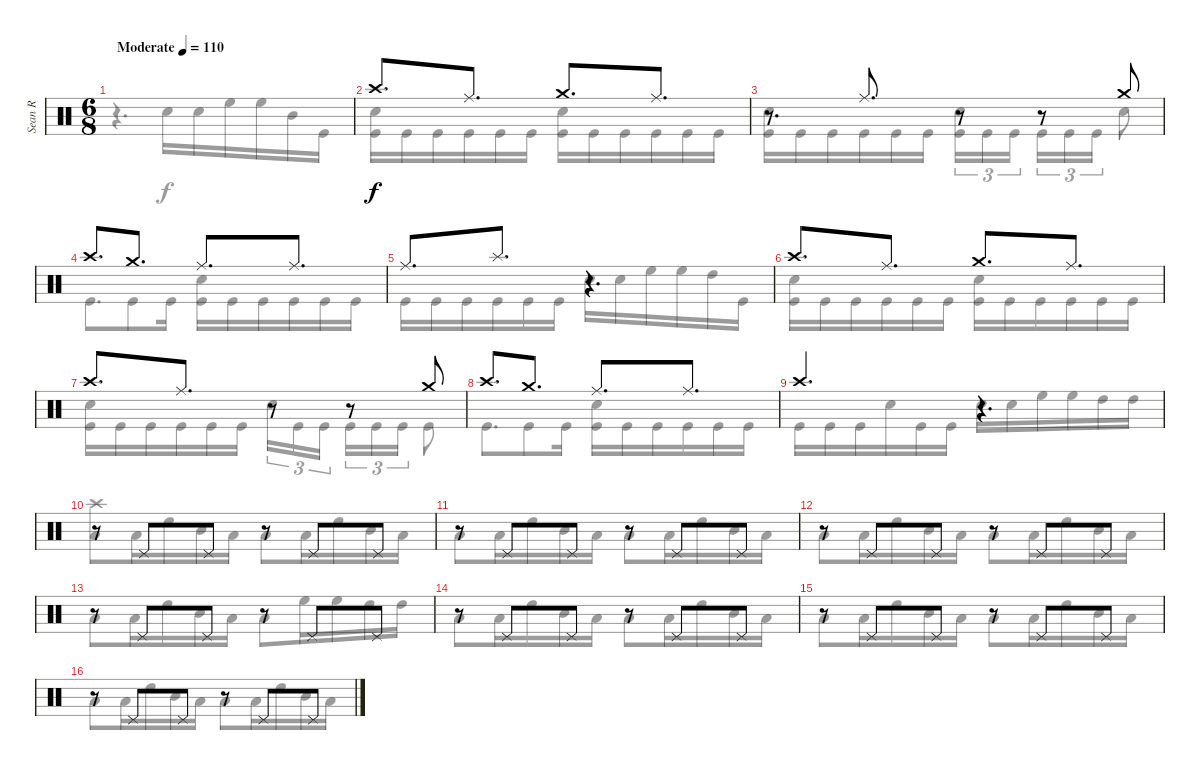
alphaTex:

\track ("Sean R" "Sean R") {instrument percussion}
\staff {score}
\articulation defaults
\voice
\ts (6 8)
\tempo (110 "Moderate")
\clef neutral
\ks c
|
"Crash high (hit)".8{d} "Ride (middle)".8{d} "Crash medium (hit)".8{d} "Ride (middle)".8{d} |
r.8{d} "Ride (middle)".8{d} r.8 r.8 "Crash medium (hit)".8 |
"Crash high (hit)".8{d} "Crash medium (hit)".8{d} "Ride (middle)".8{d} "Ride (middle)".8{d} |
"Ride (middle)".8{d} "Splash (hit)".8{d} r.4{d} |
"Crash high (hit)".8{d} "Ride (middle)".8{d} "Crash medium (hit)".8{d} "Ride (middle)".8{d} |
"Crash high (hit)".8{d} "Ride (middle)".8{d} r.8 r.8 "Crash medium (hit)".8 |
"Crash high (hit)".8{d} "Crash medium (hit)".8{d} "Ride (middle)".8{d} "Ride (middle)".8{d} |
"Crash high (hit)".4{d} r.4{d} |
r.8 "Pedal Hi-Hat (hit)".8 "Pedal Hi-Hat (hit)".8 r.8 "Pedal Hi-Hat (hit)".8 "Pedal Hi-Hat (hit)".8 |
r.8 "Pedal Hi-Hat (hit)".8 "Pedal Hi-Hat (hit)".8 r.8 "Pedal Hi-Hat (hit)".8 "Pedal Hi-Hat (hit)".8 |
r.8 "Pedal Hi-Hat (hit)".8 "Pedal Hi-Hat (hit)".8 r.8 "Pedal Hi-Hat (hit)".8 "Pedal Hi-Hat (hit)".8 |
r.8 "Pedal Hi-Hat (hit)".8 "Pedal Hi-Hat (hit)".8 r.8 "Pedal Hi-Hat (hit)".8 "Pedal Hi-Hat (hit)".8 |
r.8 "Pedal Hi-Hat (hit)".8 "Pedal Hi-Hat (hit)".8 r.8 "Pedal Hi-Hat (hit)".8 "Pedal Hi-Hat (hit)".8 |
r.8 "Pedal Hi-Hat (hit)".8 "Pedal Hi-Hat (hit)".8 r.8 "Pedal Hi-Hat (hit)".8 "Pedal Hi-Hat (hit)".8 |
r.8 "Pedal Hi-Hat (hit)".8 "Pedal Hi-Hat (hit)".8 r.8 "Pedal Hi-Hat (hit)".8 "Pedal Hi-Hat (hit)".8
\voice
\clef neutral
\ottava regular
\simile none
\ks c
r.4{d dy f} "Snare (hit) 2".16 "Snare (hit) 2".16 "High Floor Tom (hit)".16 "High Floor Tom (hit)".16 "Mid Tom (hit)".16 "Kick (hit)".16 |
("Snare (hit) 2" "Kick (hit)").16 "Kick (hit)".16 "Kick (hit)".16 "Kick (hit)".16 "Kick (hit)".16 "Kick (hit)".16 ("Snare (hit) 2" "Kick (hit)").16 "Kick (hit)".16 "Kick (hit)".16 "Kick (hit)".16 "Kick (hit)".16 "Kick (hit)".16 |
("Snare (hit) 2" "Kick (hit)").16 "Kick (hit)".16 "Kick (hit)".16 "Kick (hit)".16 "Kick (hit)".16 "Kick (hit)".16 ("Snare (hit) 2" "Kick (hit)").16{tu (3 2)} "Kick (hit)".16{tu (3 2)} "Kick (hit)".16{tu (3 2) beam splitsecondary} "Kick (hit)".16{tu (3 2)} "Kick (hit)".16{tu (3 2)} "Kick (hit)".16{tu (3 2)} "Snare (hit) 2".8 |
"Kick (hit)".8{d} "Kick (hit)".8 "Kick (hit)".16 ("Snare (hit) 2" "Kick (hit)").16 "Kick (hit)".16 "Kick (hit)".16 "Kick (hit)".16 "Kick (hit)".16 "Kick (hit)".16 |
"Kick (hit)".16 "Kick (hit)".16 "Kick (hit)".16 "Kick (hit)".16 "Kick (hit)".16 "Kick (hit)".16 "Snare (hit) 2".16 "Snare (hit) 2".16 "High Floor Tom (hit)".16 "High Floor Tom (hit)".16 "High Tom (hit)".16 "Kick (hit)".16 |
("Snare (hit) 2" "Kick (hit)").16 "Kick (hit)".16 "Kick (hit)".16 "Kick (hit)".16 "Kick (hit)".16 "Kick (hit)".16 ("Snare (hit) 2" "Kick (hit)").16 "Kick (hit)".16 "Kick (hit)".16 "Kick (hit)".16 "Kick (hit)".16 "Kick (hit)".16 |
("Snare (hit) 2" "Kick (hit)").16 "Kick (hit)".16 "Kick (hit)".16 "Kick (hit)".16 "Kick (hit)".16 "Kick (hit)".16 "Snare (hit) 2".16{tu (3 2)} "Kick (hit)".16{tu (3 2)} "Kick (hit)".16{tu (3 2) beam splitsecondary} "Kick (hit)".16{tu (3 2)} "Kick (hit)".16{tu (3 2)} "Kick (hit)".16{tu (3 2)} "Kick (hit)".8 |
"Kick (hit)".8{d} "Kick (hit)".8 "Kick (hit)".16 ("Snare (hit) 2" "Kick (hit)").16 "Kick (hit)".16 "Kick (hit)".16 "Kick (hit)".16 "Kick (hit)".16 "Kick (hit)".16 |
"Kick (hit)".16 "Kick (hit)".16 "Kick (hit)".16 "Snare (hit) 2".16 "Kick (hit)".16 "Kick (hit)".16 "Snare (hit) 2".16 "Snare (hit) 2".16 "High Floor Tom (hit)".16 "High Floor Tom (hit)".16 "High Tom (hit)".16 "High Tom (hit)".16 |
("Crash high (hit)" "Low Tom (hit)").8 "Low Tom (hit)".16 "High Tom (hit)".16 "Mid Tom (hit)".16 "Low Tom (hit)".16 "Low Tom (hit)".8 "Low Tom (hit)".16 "High Tom (hit)".16 "Mid Tom (hit)".16 "Low Tom (hit)".16 |
"Low Tom (hit)".8 "Low Tom (hit)".16 "High Tom (hit)".16 "Mid Tom (hit)".16 "Low Tom (hit)".16 "Low Tom (hit)".8 "Low Tom (hit)".16 "High Tom (hit)".16 "Mid Tom (hit)".16 "Low Tom (hit)".16 |
"Low Tom (hit)".8 "Low Tom (hit)".16 "High Tom (hit)".16 "Mid Tom (hit)".16 "Low Tom (hit)".16 "Low Tom (hit)".8 "Low Tom (hit)".16 "High Tom (hit)".16 "Mid Tom (hit)".16 "Low Tom (hit)".16 |
"Low Tom (hit)".8 "Low Tom (hit)".16 "High Tom (hit)".16 "Mid Tom (hit)".16 "Low Tom (hit)".16 "Low Tom (hit)".8 "High Floor Tom (hit)".16 "High Floor Tom (hit)".16 "High Tom (hit)".16 "High Tom (hit)".16 |
"Low Tom (hit)".8 "Low Tom (hit)".16 "High Tom (hit)".16 "Mid Tom (hit)".16 "Low Tom (hit)".16 "Low Tom (hit)".8 "Low Tom (hit)".16 "High Tom (hit)".16 "Mid Tom (hit)".16 "Low Tom (hit)".16 |
"Low Tom (hit)".8 "Low Tom (hit)".16 "High Tom (hit)".16 "Mid Tom (hit)".16 "Low Tom (hit)".16 "Low Tom (hit)".8 "Low Tom (hit)".16 "High Tom (hit)".16 "Mid Tom (hit)".16 "Low Tom (hit)".16 |
"Low Tom (hit)".8 "Low Tom (hit)".16 "High Tom (hit)".16 "Mid Tom (hit)".16 "Low Tom (hit)".16 "Low Tom (hit)".8 "Low Tom (hit)".16 "High Tom (hit)".16 "Mid Tom (hit)".16 "Low Tom (hit)".16
